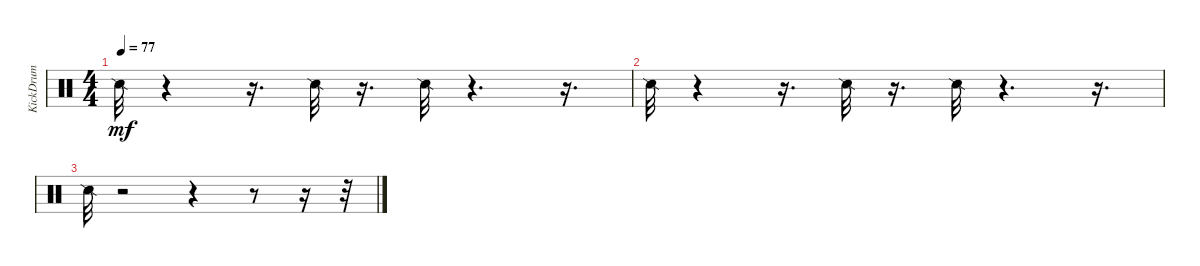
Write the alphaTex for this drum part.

\track ("KickDrum" "KickDrum") {instrument percussion}
\staff {score}
\articulation defaults
\ts (4 4)
\tempo 77
\clef neutral
\ks c "Snare (side stick) 2".32{dy mf}
r.4 r.16{d} "Snare (side stick) 2".32 r.16{d} "Snare (side stick) 2".32 r.4{d} r.16{d} |
"Snare (side stick) 2".32 r.4 r.16{d} "Snare (side stick) 2".32 r.16{d} "Snare (side stick) 2".32 r.4{d} r.16{d} |
"Snare (side stick) 2".32 r.2 r.4 r.8 r.16 r.32
